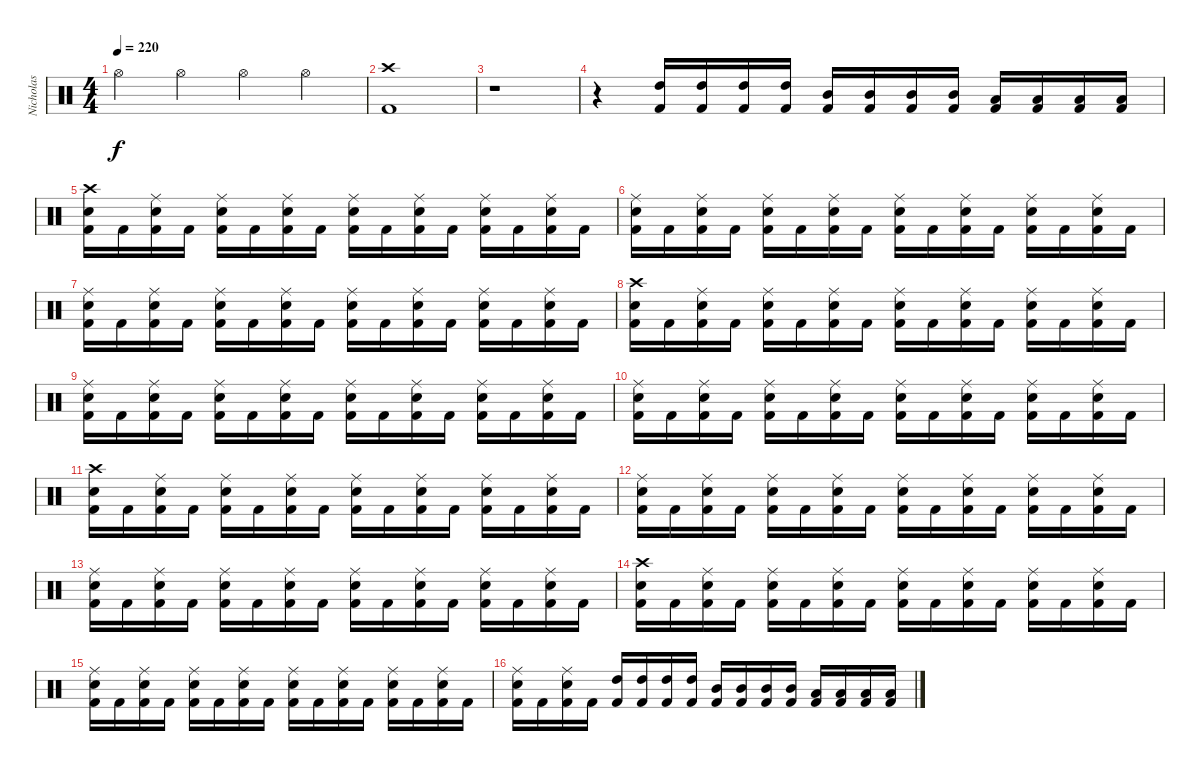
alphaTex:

\track ("Nicholas" "Nicholas") {instrument percussion}
\staff {score}
\articulation defaults
\ts (4 4)
\tempo 220
\clef neutral
\ks c "Hi-Hat (open)".4{dy f} "Hi-Hat (open)".4 "Hi-Hat (open)".4 "Hi-Hat (open)".4
|
("Kick (hit) 2" "Crash high (hit)").1 |
r.1 |
r.4 ("Kick (hit) 2" "High Tom (hit)").16 ("Kick (hit) 2" "High Tom (hit)").16 ("Kick (hit) 2" "High Tom (hit)").16 ("Kick (hit) 2" "High Tom (hit)").16 ("Kick (hit) 2" "Mid Tom (hit)").16 ("Kick (hit) 2" "Mid Tom (hit)").16 ("Kick (hit) 2" "Mid Tom (hit)").16 ("Kick (hit) 2" "Mid Tom (hit)").16 ("Kick (hit) 2" "Low Tom (hit)").16 ("Kick (hit) 2" "Low Tom (hit)").16 ("Kick (hit) 2" "Low Tom (hit)").16 ("Kick (hit) 2" "Low Tom (hit)").16 |
("Kick (hit) 2" "Snare (hit) 2" "Crash high (hit)").16 "Kick (hit) 2".16 ("Kick (hit) 2" "Snare (hit) 2" "Ride (middle)").16 "Kick (hit) 2".16 ("Kick (hit) 2" "Snare (hit) 2" "Ride (middle)").16 "Kick (hit) 2".16 ("Kick (hit) 2" "Snare (hit) 2" "Ride (middle)").16 "Kick (hit) 2".16 ("Kick (hit) 2" "Snare (hit) 2" "Ride (middle)").16 "Kick (hit) 2".16 ("Kick (hit) 2" "Snare (hit) 2" "Ride (middle)").16 "Kick (hit) 2".16 ("Kick (hit) 2" "Snare (hit) 2" "Ride (middle)").16 "Kick (hit) 2".16 ("Kick (hit) 2" "Snare (hit) 2" "Ride (middle)").16 "Kick (hit) 2".16 |
("Kick (hit) 2" "Snare (hit) 2" "Ride (middle)").16 "Kick (hit) 2".16 ("Kick (hit) 2" "Snare (hit) 2" "Ride (middle)").16 "Kick (hit) 2".16 ("Kick (hit) 2" "Snare (hit) 2" "Ride (middle)").16 "Kick (hit) 2".16 ("Kick (hit) 2" "Snare (hit) 2" "Ride (middle)").16 "Kick (hit) 2".16 ("Kick (hit) 2" "Snare (hit) 2" "Ride (middle)").16 "Kick (hit) 2".16 ("Kick (hit) 2" "Snare (hit) 2" "Ride (middle)").16 "Kick (hit) 2".16 ("Kick (hit) 2" "Snare (hit) 2" "Ride (middle)").16 "Kick (hit) 2".16 ("Kick (hit) 2" "Snare (hit) 2" "Ride (middle)").16 "Kick (hit) 2".16 |
("Kick (hit) 2" "Snare (hit) 2" "Ride (middle)").16 "Kick (hit) 2".16 ("Kick (hit) 2" "Snare (hit) 2" "Ride (middle)").16 "Kick (hit) 2".16 ("Kick (hit) 2" "Snare (hit) 2" "Ride (middle)").16 "Kick (hit) 2".16 ("Kick (hit) 2" "Snare (hit) 2" "Ride (middle)").16 "Kick (hit) 2".16 ("Kick (hit) 2" "Snare (hit) 2" "Ride (middle)").16 "Kick (hit) 2".16 ("Kick (hit) 2" "Snare (hit) 2" "Ride (middle)").16 "Kick (hit) 2".16 ("Kick (hit) 2" "Snare (hit) 2" "Ride (middle)").16 "Kick (hit) 2".16 ("Kick (hit) 2" "Snare (hit) 2" "Ride (middle)").16 "Kick (hit) 2".16 |
("Kick (hit) 2" "Snare (hit) 2" "Crash high (hit)").16 "Kick (hit) 2".16 ("Kick (hit) 2" "Snare (hit) 2" "Ride (middle)").16 "Kick (hit) 2".16 ("Kick (hit) 2" "Snare (hit) 2" "Ride (middle)").16 "Kick (hit) 2".16 ("Kick (hit) 2" "Snare (hit) 2" "Ride (middle)").16 "Kick (hit) 2".16 ("Kick (hit) 2" "Snare (hit) 2" "Ride (middle)").16 "Kick (hit) 2".16 ("Kick (hit) 2" "Snare (hit) 2" "Ride (middle)").16 "Kick (hit) 2".16 ("Kick (hit) 2" "Snare (hit) 2" "Ride (middle)").16 "Kick (hit) 2".16 ("Kick (hit) 2" "Snare (hit) 2" "Ride (middle)").16 "Kick (hit) 2".16 |
("Kick (hit) 2" "Snare (hit) 2" "Ride (middle)").16 "Kick (hit) 2".16 ("Kick (hit) 2" "Snare (hit) 2" "Ride (middle)").16 "Kick (hit) 2".16 ("Kick (hit) 2" "Snare (hit) 2" "Ride (middle)").16 "Kick (hit) 2".16 ("Kick (hit) 2" "Snare (hit) 2" "Ride (middle)").16 "Kick (hit) 2".16 ("Kick (hit) 2" "Snare (hit) 2" "Ride (middle)").16 "Kick (hit) 2".16 ("Kick (hit) 2" "Snare (hit) 2" "Ride (middle)").16 "Kick (hit) 2".16 ("Kick (hit) 2" "Snare (hit) 2" "Ride (middle)").16 "Kick (hit) 2".16 ("Kick (hit) 2" "Snare (hit) 2" "Ride (middle)").16 "Kick (hit) 2".16 |
("Kick (hit) 2" "Snare (hit) 2" "Ride (middle)").16 "Kick (hit) 2".16 ("Kick (hit) 2" "Snare (hit) 2" "Ride (middle)").16 "Kick (hit) 2".16 ("Kick (hit) 2" "Snare (hit) 2" "Ride (middle)").16 "Kick (hit) 2".16 ("Kick (hit) 2" "Snare (hit) 2" "Ride (middle)").16 "Kick (hit) 2".16 ("Kick (hit) 2" "Snare (hit) 2" "Ride (middle)").16 "Kick (hit) 2".16 ("Kick (hit) 2" "Snare (hit) 2" "Ride (middle)").16 "Kick (hit) 2".16 ("Kick (hit) 2" "Snare (hit) 2" "Ride (middle)").16 "Kick (hit) 2".16 ("Kick (hit) 2" "Snare (hit) 2" "Ride (middle)").16 "Kick (hit) 2".16 |
("Kick (hit) 2" "Snare (hit) 2" "Crash high (hit)").16 "Kick (hit) 2".16 ("Kick (hit) 2" "Snare (hit) 2" "Ride (middle)").16 "Kick (hit) 2".16 ("Kick (hit) 2" "Snare (hit) 2" "Ride (middle)").16 "Kick (hit) 2".16 ("Kick (hit) 2" "Snare (hit) 2" "Ride (middle)").16 "Kick (hit) 2".16 ("Kick (hit) 2" "Snare (hit) 2" "Ride (middle)").16 "Kick (hit) 2".16 ("Kick (hit) 2" "Snare (hit) 2" "Ride (middle)").16 "Kick (hit) 2".16 ("Kick (hit) 2" "Snare (hit) 2" "Ride (middle)").16 "Kick (hit) 2".16 ("Kick (hit) 2" "Snare (hit) 2" "Ride (middle)").16 "Kick (hit) 2".16 |
("Kick (hit) 2" "Snare (hit) 2" "Ride (middle)").16 "Kick (hit) 2".16 ("Kick (hit) 2" "Snare (hit) 2" "Ride (middle)").16 "Kick (hit) 2".16 ("Kick (hit) 2" "Snare (hit) 2" "Ride (middle)").16 "Kick (hit) 2".16 ("Kick (hit) 2" "Snare (hit) 2" "Ride (middle)").16 "Kick (hit) 2".16 ("Kick (hit) 2" "Snare (hit) 2" "Ride (middle)").16 "Kick (hit) 2".16 ("Kick (hit) 2" "Snare (hit) 2" "Ride (middle)").16 "Kick (hit) 2".16 ("Kick (hit) 2" "Snare (hit) 2" "Ride (middle)").16 "Kick (hit) 2".16 ("Kick (hit) 2" "Snare (hit) 2" "Ride (middle)").16 "Kick (hit) 2".16 |
("Kick (hit) 2" "Snare (hit) 2" "Ride (middle)").16 "Kick (hit) 2".16 ("Kick (hit) 2" "Snare (hit) 2" "Ride (middle)").16 "Kick (hit) 2".16 ("Kick (hit) 2" "Snare (hit) 2" "Ride (middle)").16 "Kick (hit) 2".16 ("Kick (hit) 2" "Snare (hit) 2" "Ride (middle)").16 "Kick (hit) 2".16 ("Kick (hit) 2" "Snare (hit) 2" "Ride (middle)").16 "Kick (hit) 2".16 ("Kick (hit) 2" "Snare (hit) 2" "Ride (middle)").16 "Kick (hit) 2".16 ("Kick (hit) 2" "Snare (hit) 2" "Ride (middle)").16 "Kick (hit) 2".16 ("Kick (hit) 2" "Snare (hit) 2" "Ride (middle)").16 "Kick (hit) 2".16 |
("Kick (hit) 2" "Snare (hit) 2" "Crash high (hit)").16 "Kick (hit) 2".16 ("Kick (hit) 2" "Snare (hit) 2" "Ride (middle)").16 "Kick (hit) 2".16 ("Kick (hit) 2" "Snare (hit) 2" "Ride (middle)").16 "Kick (hit) 2".16 ("Kick (hit) 2" "Snare (hit) 2" "Ride (middle)").16 "Kick (hit) 2".16 ("Kick (hit) 2" "Snare (hit) 2" "Ride (middle)").16 "Kick (hit) 2".16 ("Kick (hit) 2" "Snare (hit) 2" "Ride (middle)").16 "Kick (hit) 2".16 ("Kick (hit) 2" "Snare (hit) 2" "Ride (middle)").16 "Kick (hit) 2".16 ("Kick (hit) 2" "Snare (hit) 2" "Ride (middle)").16 "Kick (hit) 2".16 |
("Kick (hit) 2" "Snare (hit) 2" "Ride (middle)").16 "Kick (hit) 2".16 ("Kick (hit) 2" "Snare (hit) 2" "Ride (middle)").16 "Kick (hit) 2".16 ("Kick (hit) 2" "Snare (hit) 2" "Ride (middle)").16 "Kick (hit) 2".16 ("Kick (hit) 2" "Snare (hit) 2" "Ride (middle)").16 "Kick (hit) 2".16 ("Kick (hit) 2" "Snare (hit) 2" "Ride (middle)").16 "Kick (hit) 2".16 ("Kick (hit) 2" "Snare (hit) 2" "Ride (middle)").16 "Kick (hit) 2".16 ("Kick (hit) 2" "Snare (hit) 2" "Ride (middle)").16 "Kick (hit) 2".16 ("Kick (hit) 2" "Snare (hit) 2" "Ride (middle)").16 "Kick (hit) 2".16 |
("Kick (hit) 2" "Snare (hit) 2" "Ride (middle)").16 "Kick (hit) 2".16 ("Kick (hit) 2" "Snare (hit) 2" "Ride (middle)").16 "Kick (hit) 2".16 ("Kick (hit) 2" "High Tom (hit)").16 ("Kick (hit) 2" "High Tom (hit)").16 ("Kick (hit) 2" "High Tom (hit)").16 ("Kick (hit) 2" "High Tom (hit)").16 ("Kick (hit) 2" "Mid Tom (hit)").16 ("Kick (hit) 2" "Mid Tom (hit)").16 ("Kick (hit) 2" "Mid Tom (hit)").16 ("Kick (hit) 2" "Mid Tom (hit)").16 ("Kick (hit) 2" "Low Tom (hit)").16 ("Kick (hit) 2" "Low Tom (hit)").16 ("Kick (hit) 2" "Low Tom (hit)").16 ("Kick (hit) 2" "Low Tom (hit)").16
